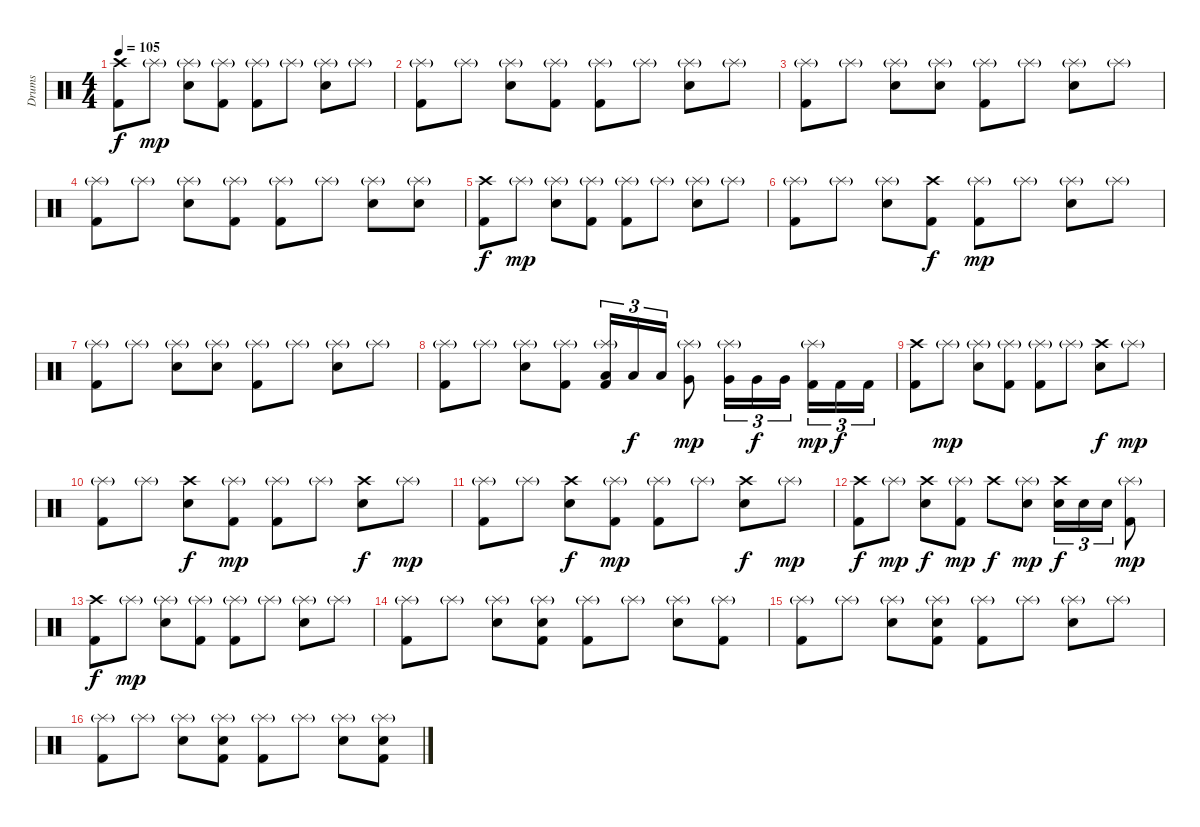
\track ("Drums" "Drums") {instrument percussion}
\staff {score}
\articulation defaults
\ts (4 4)
\tempo 105
\clef neutral
\ks c
("Crash high (hit)" "Kick (hit) 2").8{dy f} "Splash (hit)"{g}.8{dy mp} ("Splash (hit)"{g} "Snare (hit) 2").8 ("Splash (hit)"{g} "Kick (hit) 2").8 ("Splash (hit)"{g} "Kick (hit) 2").8 "Splash (hit)"{g}.8 ("Splash (hit)"{g} "Snare (hit) 2").8 "Splash (hit)"{g}.8 |
("Splash (hit)"{g} "Kick (hit) 2").8 "Splash (hit)"{g}.8 ("Splash (hit)"{g} "Snare (hit) 2").8 ("Splash (hit)"{g} "Kick (hit) 2").8 ("Splash (hit)"{g} "Kick (hit) 2").8 "Splash (hit)"{g}.8 ("Splash (hit)"{g} "Snare (hit) 2").8 "Splash (hit)"{g}.8 |
("Splash (hit)"{g} "Kick (hit) 2").8 "Splash (hit)"{g}.8 ("Splash (hit)"{g} "Snare (hit) 2").8 ("Splash (hit)"{g} "Snare (hit) 2").8 ("Splash (hit)"{g} "Kick (hit) 2").8 "Splash (hit)"{g}.8 ("Splash (hit)"{g} "Snare (hit) 2").8 "Splash (hit)"{g}.8 |
("Splash (hit)"{g} "Kick (hit) 2").8 "Splash (hit)"{g}.8 ("Splash (hit)"{g} "Snare (hit) 2").8 ("Splash (hit)"{g} "Kick (hit) 2").8 ("Splash (hit)"{g} "Kick (hit) 2").8 "Splash (hit)"{g}.8 ("Splash (hit)"{g} "Snare (hit) 2").8 ("Splash (hit)"{g} "Snare (hit) 2").8 |
("Crash high (hit)" "Kick (hit) 2").8{dy f} "Splash (hit)"{g}.8{dy mp} ("Splash (hit)"{g} "Snare (hit) 2").8 ("Splash (hit)"{g} "Kick (hit) 2").8 ("Splash (hit)"{g} "Kick (hit) 2").8 "Splash (hit)"{g}.8 ("Splash (hit)"{g} "Snare (hit) 2").8 "Splash (hit)"{g}.8 |
("Splash (hit)"{g} "Kick (hit) 2").8 "Splash (hit)"{g}.8 ("Splash (hit)"{g} "Snare (hit) 2").8 ("Crash high (hit)" "Kick (hit) 2").8{dy f} ("Splash (hit)"{g} "Kick (hit) 2").8{dy mp} "Splash (hit)"{g}.8 ("Splash (hit)"{g} "Snare (hit) 2").8 "Splash (hit)"{g}.8 |
("Splash (hit)"{g} "Kick (hit) 2").8 "Splash (hit)"{g}.8 ("Splash (hit)"{g} "Snare (hit) 2").8 ("Splash (hit)"{g} "Snare (hit) 2").8 ("Splash (hit)"{g} "Kick (hit) 2").8 "Splash (hit)"{g}.8 ("Splash (hit)"{g} "Snare (hit) 2").8 "Splash (hit)"{g}.8 |
("Splash (hit)"{g} "Kick (hit) 2").8 "Splash (hit)"{g}.8 ("Splash (hit)"{g} "Snare (hit) 2").8 ("Splash (hit)"{g} "Kick (hit) 2").8 ("Splash (hit)"{g} "Low Tom (hit)" "Kick (hit) 2").16{tu (3 2)} "Low Tom (hit)".16{tu (3 2) dy f} "Low Tom (hit)".16{tu (3 2)} ("Splash (hit)"{g} "Very Low Tom (hit)").8{dy mp} ("Splash (hit)"{g} "Very Low Tom (hit)").16{tu (3 2)} "Very Low Tom (hit)".16{tu (3 2) dy f} "Very Low Tom (hit)".16{tu (3 2) beam splitsecondary} ("Splash (hit)"{g} "Kick (hit) 2").16{tu (3 2) dy mp} "Kick (hit) 2".16{tu (3 2) dy f} "Kick (hit) 2".16{tu (3 2)} |
("Crash high (hit)" "Kick (hit) 2").8 "Splash (hit)"{g}.8{dy mp} ("Splash (hit)"{g} "Snare (hit) 2").8 ("Splash (hit)"{g} "Kick (hit) 2").8 ("Splash (hit)"{g} "Kick (hit) 2").8 "Splash (hit)"{g}.8 ("Crash high (hit)" "Snare (hit) 2").8{dy f} "Splash (hit)"{g}.8{dy mp} |
("Splash (hit)"{g} "Kick (hit) 2").8 "Splash (hit)"{g}.8 ("Crash high (hit)" "Snare (hit) 2").8{dy f} ("Splash (hit)"{g} "Kick (hit) 2").8{dy mp} ("Splash (hit)"{g} "Kick (hit) 2").8 "Splash (hit)"{g}.8 ("Crash high (hit)" "Snare (hit) 2").8{dy f} "Splash (hit)"{g}.8{dy mp} |
("Splash (hit)"{g} "Kick (hit) 2").8 "Splash (hit)"{g}.8 ("Crash high (hit)" "Snare (hit) 2").8{dy f} ("Splash (hit)"{g} "Kick (hit) 2").8{dy mp} ("Splash (hit)"{g} "Kick (hit) 2").8 "Splash (hit)"{g}.8 ("Crash high (hit)" "Snare (hit) 2").8{dy f} "Splash (hit)"{g}.8{dy mp} |
("Crash high (hit)" "Kick (hit) 2").8{dy f} "Splash (hit)"{g}.8{dy mp} ("Crash high (hit)" "Snare (hit) 2").8{dy f} ("Splash (hit)"{g} "Kick (hit) 2").8{dy mp} "Crash high (hit)".8{dy f} ("Splash (hit)"{g} "Snare (hit) 2").8{dy mp} ("Crash high (hit)" "Snare (hit) 2").16{tu (3 2) dy f} "Snare (hit) 2".16{tu (3 2)} "Snare (hit) 2".16{tu (3 2)} ("Splash (hit)"{g} "Kick (hit) 2").8{dy mp} |
("Crash high (hit)" "Kick (hit) 2").8{dy f} "Splash (hit)"{g}.8{dy mp} ("Splash (hit)"{g} "Snare (hit) 2").8 ("Splash (hit)"{g} "Kick (hit) 2").8 ("Splash (hit)"{g} "Kick (hit) 2").8 "Splash (hit)"{g}.8 ("Splash (hit)"{g} "Snare (hit) 2").8 "Splash (hit)"{g}.8 |
("Splash (hit)"{g} "Kick (hit) 2").8 "Splash (hit)"{g}.8 ("Splash (hit)"{g} "Snare (hit) 2").8 ("Splash (hit)"{g} "Snare (hit) 2" "Kick (hit) 2").8 ("Splash (hit)"{g} "Kick (hit) 2").8 "Splash (hit)"{g}.8 ("Splash (hit)"{g} "Snare (hit) 2").8 ("Splash (hit)"{g} "Kick (hit) 2").8 |
("Splash (hit)"{g} "Kick (hit) 2").8 "Splash (hit)"{g}.8 ("Splash (hit)"{g} "Snare (hit) 2").8 ("Splash (hit)"{g} "Snare (hit) 2" "Kick (hit) 2").8 ("Splash (hit)"{g} "Kick (hit) 2").8 "Splash (hit)"{g}.8 ("Splash (hit)"{g} "Snare (hit) 2").8 "Splash (hit)"{g}.8 |
("Splash (hit)"{g} "Kick (hit) 2").8 "Splash (hit)"{g}.8 ("Splash (hit)"{g} "Snare (hit) 2").8 ("Splash (hit)"{g} "Snare (hit) 2" "Kick (hit) 2").8 ("Splash (hit)"{g} "Kick (hit) 2").8 "Splash (hit)"{g}.8 ("Splash (hit)"{g} "Snare (hit) 2").8 ("Splash (hit)"{g} "Snare (hit) 2" "Kick (hit) 2").8
